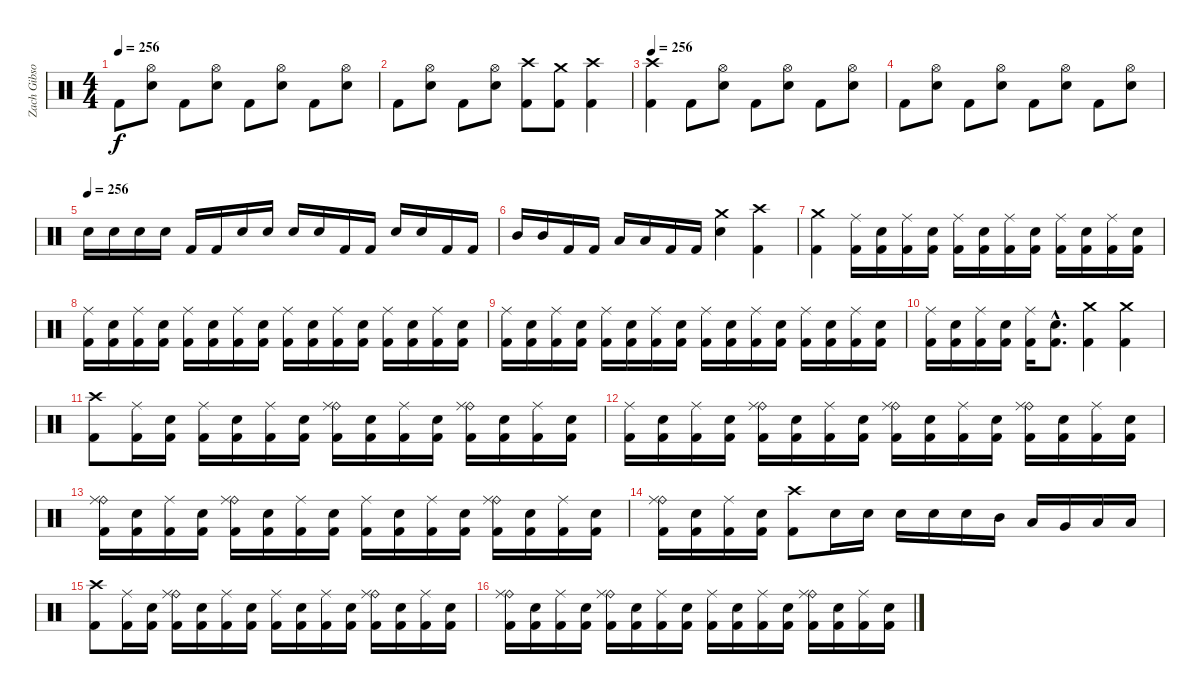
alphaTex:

\track ("Zach Gibson (Drums)" "Zach Gibso") {instrument percussion}
\staff {score}
\articulation defaults
\ts (4 4)
\tempo 256
\clef neutral
\ks c "Kick (hit) 2".8{dy f}
("Hi-Hat (open)" "Snare (hit) 2").8 "Kick (hit) 2".8 ("Hi-Hat (open)" "Snare (hit) 2").8 "Kick (hit) 2".8 ("Hi-Hat (open)" "Snare (hit) 2").8 "Kick (hit) 2".8 ("Hi-Hat (open)" "Snare (hit) 2").8 |
"Kick (hit) 2".8 ("Hi-Hat (open)" "Snare (hit) 2").8 "Kick (hit) 2".8 ("Hi-Hat (open)" "Snare (hit) 2").8 ("Crash high (hit)" "Kick (hit) 2").8 ("Crash medium (hit)" "Kick (hit) 2").8 ("Crash high (hit)" "Kick (hit) 2").4 |
\tempo 256
("Crash high (hit)" "Kick (hit) 2").4{volume 16 balance 8} "Kick (hit) 2".8 ("Hi-Hat (open)" "Snare (hit) 2").8 "Kick (hit) 2".8 ("Hi-Hat (open)" "Snare (hit) 2").8 "Kick (hit) 2".8 ("Hi-Hat (open)" "Snare (hit) 2").8 |
"Kick (hit) 2".8 ("Hi-Hat (open)" "Snare (hit) 2").8 "Kick (hit) 2".8 ("Hi-Hat (open)" "Snare (hit) 2").8 "Kick (hit) 2".8 ("Hi-Hat (open)" "Snare (hit) 2").8 "Kick (hit) 2".8 ("Hi-Hat (open)" "Snare (hit) 2").8 |
\tempo (256)
"Snare (hit) 2".16 "Snare (hit) 2".16 "Snare (hit) 2".16 "Snare (hit) 2".16 "Kick (hit) 2".16 "Kick (hit) 2".16 "Snare (hit) 2".16 "Snare (hit) 2".16 "Snare (hit) 2".16 "Snare (hit) 2".16 "Kick (hit) 2".16 "Kick (hit) 2".16 "Snare (hit) 2".16 "Snare (hit) 2".16 "Kick (hit) 2".16 "Kick (hit) 2".16 |
"Mid Tom (hit)".16 "Mid Tom (hit)".16 "Kick (hit) 2".16 "Kick (hit) 2".16 "Low Tom (hit)".16 "Low Tom (hit)".16 "Kick (hit) 2".16 "Kick (hit) 2".16 ("Crash medium (hit)" "Snare (hit) 2").4 ("Crash high (hit)" "Kick (hit) 2").4 |
("Crash medium (hit)" "Kick (hit) 2").4{volume 16 balance 8} ("Ride (middle)" "Kick (hit) 2").16 ("Snare (hit) 2" "Kick (hit) 2").16 ("Ride (middle)" "Kick (hit) 2").16 ("Snare (hit) 2" "Kick (hit) 2").16 ("Ride (middle)" "Kick (hit) 2").16 ("Snare (hit) 2" "Kick (hit) 2").16 ("Ride (middle)" "Kick (hit) 2").16 ("Snare (hit) 2" "Kick (hit) 2").16 ("Ride (middle)" "Kick (hit) 2").16 ("Kick (hit) 2" "Snare (hit) 2").16 ("Ride (middle)" "Kick (hit) 2").16 ("Kick (hit) 2" "Snare (hit) 2").16 |
("Ride (middle)" "Kick (hit) 2").16{volume 16 balance 8} ("Snare (hit) 2" "Kick (hit) 2").16 ("Ride (middle)" "Kick (hit) 2").16 ("Snare (hit) 2" "Kick (hit) 2").16 ("Ride (middle)" "Kick (hit) 2").16 ("Snare (hit) 2" "Kick (hit) 2").16 ("Ride (middle)" "Kick (hit) 2").16 ("Snare (hit) 2" "Kick (hit) 2").16 ("Ride (middle)" "Kick (hit) 2").16 ("Snare (hit) 2" "Kick (hit) 2").16 ("Ride (middle)" "Kick (hit) 2").16 ("Snare (hit) 2" "Kick (hit) 2").16 ("Ride (middle)" "Kick (hit) 2").16 ("Snare (hit) 2" "Kick (hit) 2").16 ("Ride (middle)" "Kick (hit) 2").16 ("Snare (hit) 2" "Kick (hit) 2").16 |
("Ride (middle)" "Kick (hit) 2").16 ("Snare (hit) 2" "Kick (hit) 2").16 ("Ride (middle)" "Kick (hit) 2").16 ("Snare (hit) 2" "Kick (hit) 2").16 ("Ride (middle)" "Kick (hit) 2").16 ("Snare (hit) 2" "Kick (hit) 2").16 ("Ride (middle)" "Kick (hit) 2").16 ("Snare (hit) 2" "Kick (hit) 2").16 ("Ride (middle)" "Kick (hit) 2").16 ("Snare (hit) 2" "Kick (hit) 2").16 ("Ride (middle)" "Kick (hit) 2").16 ("Snare (hit) 2" "Kick (hit) 2").16 ("Ride (middle)" "Kick (hit) 2").16 ("Snare (hit) 2" "Kick (hit) 2").16 ("Ride (middle)" "Kick (hit) 2").16 ("Snare (hit) 2" "Kick (hit) 2").16 |
("Ride (middle)" "Kick (hit) 2").16 ("Snare (hit) 2" "Kick (hit) 2").16 ("Ride (middle)" "Kick (hit) 2").16 ("Snare (hit) 2" "Kick (hit) 2").16 ("Ride (middle)" "Kick (hit) 2").16 ("Snare (hit) 2"{hac} "Kick (hit) 2"{hac}).8{d} ("Crash medium (hit)" "Kick (hit) 2").4 ("Crash medium (hit)" "Kick (hit) 2").4 |
("Crash high (hit)" "Kick (hit) 2").8 ("Ride (middle)" "Kick (hit) 2").16 ("Snare (hit) 2" "Kick (hit) 2").16 ("Ride (middle)" "Kick (hit) 2").16 ("Snare (hit) 2" "Kick (hit) 2").16 ("Ride (middle)" "Kick (hit) 2").16 ("Snare (hit) 2" "Kick (hit) 2").16 ("Ride (bell)" "Ride (middle)" "Kick (hit) 2").16 ("Snare (hit) 2" "Kick (hit) 2").16 ("Ride (middle)" "Kick (hit) 2").16 ("Snare (hit) 2" "Kick (hit) 2").16 ("Ride (bell)" "Ride (middle)" "Kick (hit) 2").16 ("Kick (hit) 2" "Snare (hit) 2").16 ("Ride (middle)" "Kick (hit) 2").16 ("Kick (hit) 2" "Snare (hit) 2").16 |
("Ride (middle)" "Kick (hit) 2").16 ("Snare (hit) 2" "Kick (hit) 2").16 ("Ride (middle)" "Kick (hit) 2").16 ("Snare (hit) 2" "Kick (hit) 2").16 ("Ride (bell)" "Ride (middle)" "Kick (hit) 2").16 ("Snare (hit) 2" "Kick (hit) 2").16 ("Ride (middle)" "Kick (hit) 2").16 ("Snare (hit) 2" "Kick (hit) 2").16 ("Ride (bell)" "Ride (middle)" "Kick (hit) 2").16 ("Snare (hit) 2" "Kick (hit) 2").16 ("Ride (middle)" "Kick (hit) 2").16 ("Snare (hit) 2" "Kick (hit) 2").16 ("Ride (bell)" "Ride (middle)" "Kick (hit) 2").16 ("Snare (hit) 2" "Kick (hit) 2").16 ("Ride (middle)" "Kick (hit) 2").16 ("Snare (hit) 2" "Kick (hit) 2").16 |
("Ride (bell)" "Ride (middle)" "Kick (hit) 2").16 ("Snare (hit) 2" "Kick (hit) 2").16 ("Ride (middle)" "Kick (hit) 2").16 ("Snare (hit) 2" "Kick (hit) 2").16 ("Ride (bell)" "Ride (middle)" "Kick (hit) 2").16 ("Snare (hit) 2" "Kick (hit) 2").16 ("Ride (middle)" "Kick (hit) 2").16 ("Snare (hit) 2" "Kick (hit) 2").16 ("Ride (middle)" "Kick (hit) 2").16 ("Snare (hit) 2" "Kick (hit) 2").16 ("Ride (middle)" "Kick (hit) 2").16 ("Snare (hit) 2" "Kick (hit) 2").16 ("Ride (bell)" "Ride (middle)" "Kick (hit) 2").16 ("Snare (hit) 2" "Kick (hit) 2").16 ("Ride (middle)" "Kick (hit) 2").16 ("Snare (hit) 2" "Kick (hit) 2").16 |
("Ride (bell)" "Ride (middle)" "Kick (hit) 2").16 ("Snare (hit) 2" "Kick (hit) 2").16 ("Ride (middle)" "Kick (hit) 2").16 ("Snare (hit) 2" "Kick (hit) 2").16 ("Crash high (hit)" "Kick (hit) 2").8 "Snare (hit) 2".16 "Snare (hit) 2".16 "Snare (hit) 2".16 "Snare (hit) 2".16 "Snare (hit) 2".16 "Mid Tom (hit)".16 "Low Tom (hit)".16 "Very Low Tom (hit)".16 "Low Floor Tom (hit)".16 "Low Floor Tom (hit)".16 |
("Crash high (hit)" "Kick (hit) 2").8 ("Ride (middle)" "Kick (hit) 2").16 ("Snare (hit) 2" "Kick (hit) 2").16 ("Ride (bell)" "Ride (middle)" "Kick (hit) 2").16 ("Snare (hit) 2" "Kick (hit) 2").16 ("Ride (middle)" "Kick (hit) 2").16 ("Snare (hit) 2" "Kick (hit) 2").16 ("Ride (middle)" "Kick (hit) 2").16 ("Snare (hit) 2" "Kick (hit) 2").16 ("Ride (middle)" "Kick (hit) 2").16 ("Snare (hit) 2" "Kick (hit) 2").16 ("Ride (bell)" "Ride (middle)" "Kick (hit) 2").16 ("Kick (hit) 2" "Snare (hit) 2").16 ("Ride (middle)" "Kick (hit) 2").16 ("Kick (hit) 2" "Snare (hit) 2").16 |
("Ride (bell)" "Ride (middle)" "Kick (hit) 2").16 ("Snare (hit) 2" "Kick (hit) 2").16 ("Ride (middle)" "Kick (hit) 2").16 ("Snare (hit) 2" "Kick (hit) 2").16 ("Ride (bell)" "Ride (middle)" "Kick (hit) 2").16 ("Snare (hit) 2" "Kick (hit) 2").16 ("Ride (middle)" "Kick (hit) 2").16 ("Snare (hit) 2" "Kick (hit) 2").16 ("Ride (middle)" "Kick (hit) 2").16 ("Snare (hit) 2" "Kick (hit) 2").16 ("Ride (middle)" "Kick (hit) 2").16 ("Snare (hit) 2" "Kick (hit) 2").16 ("Ride (bell)" "Ride (middle)" "Kick (hit) 2").16 ("Snare (hit) 2" "Kick (hit) 2").16 ("Ride (middle)" "Kick (hit) 2").16 ("Snare (hit) 2" "Kick (hit) 2").16
